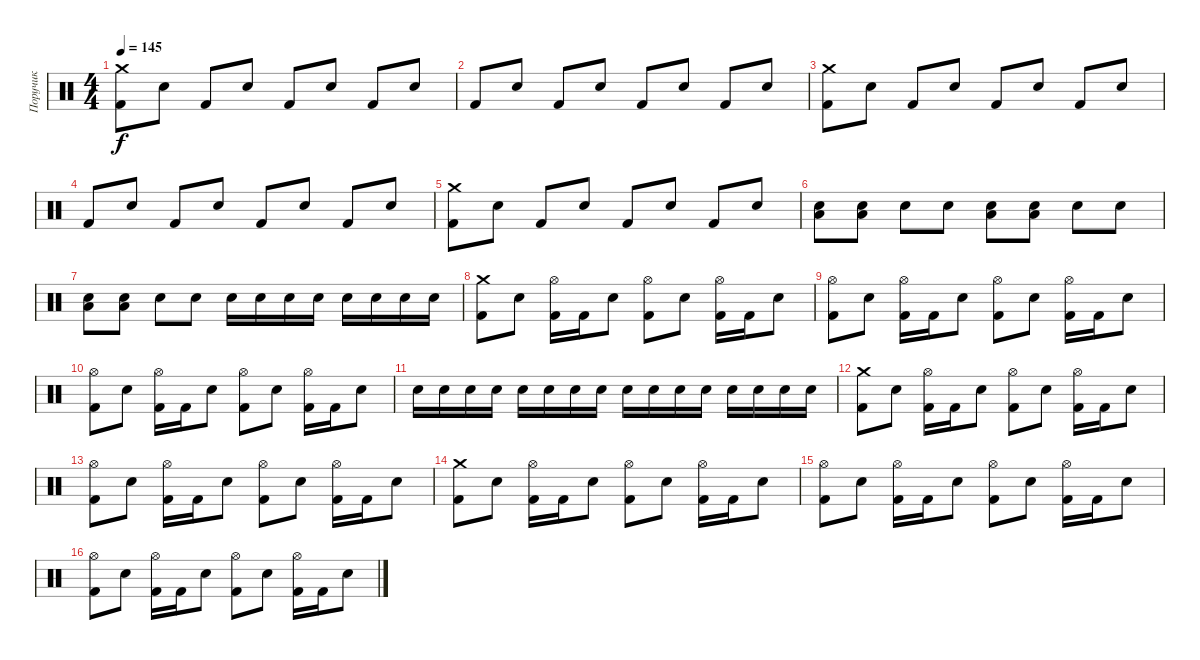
\track ("Поручик" "Поручик") {instrument percussion}
\staff {score}
\articulation defaults
\ts (4 4)
\tempo 145
\clef neutral
\ks c
("Crash medium (hit)" "Kick (hit) 2").8{dy f} "Snare (hit) 2".8 "Kick (hit) 2".8 "Snare (hit) 2".8 "Kick (hit) 2".8 "Snare (hit) 2".8 "Kick (hit) 2".8 "Snare (hit) 2".8 |
"Kick (hit) 2".8 "Snare (hit) 2".8 "Kick (hit) 2".8 "Snare (hit) 2".8 "Kick (hit) 2".8 "Snare (hit) 2".8 "Kick (hit) 2".8 "Snare (hit) 2".8 |
("Crash medium (hit)" "Kick (hit) 2").8 "Snare (hit) 2".8 "Kick (hit) 2".8 "Snare (hit) 2".8 "Kick (hit) 2".8 "Snare (hit) 2".8 "Kick (hit) 2".8 "Snare (hit) 2".8 |
"Kick (hit) 2".8 "Snare (hit) 2".8 "Kick (hit) 2".8 "Snare (hit) 2".8 "Kick (hit) 2".8 "Snare (hit) 2".8 "Kick (hit) 2".8 "Snare (hit) 2".8 |
("Crash medium (hit)" "Kick (hit) 2").8 "Snare (hit) 2".8 "Kick (hit) 2".8 "Snare (hit) 2".8 "Kick (hit) 2".8 "Snare (hit) 2".8 "Kick (hit) 2".8 "Snare (hit) 2".8 |
("Snare (hit) 2" "Low Tom (hit)").8 ("Snare (hit) 2" "Low Tom (hit)").8 "Snare (hit)".8 "Snare (hit)".8 ("Snare (hit) 2" "Low Tom (hit)").8 ("Snare (hit) 2" "Low Tom (hit)").8 "Snare (hit)".8 "Snare (hit)".8 |
("Snare (hit) 2" "Low Tom (hit)").8 ("Snare (hit) 2" "Low Tom (hit)").8 "Snare (hit)".8 "Snare (hit)".8 "Snare (hit) 2".16 "Snare (hit) 2".16 "Snare (hit) 2".16 "Snare (hit) 2".16 "Snare (hit) 2".16 "Snare (hit) 2".16 "Snare (hit) 2".16 "Snare (hit) 2".16 |
("Kick (hit) 2" "Crash medium (hit)").8 "Snare (hit) 2".8 ("Kick (hit) 2" "Hi-Hat (open)").16 "Kick (hit) 2".16 "Snare (hit) 2".8 ("Kick (hit) 2" "Hi-Hat (open)").8 "Snare (hit) 2".8 ("Kick (hit) 2" "Hi-Hat (open)").16 "Kick (hit) 2".16 "Snare (hit) 2".8 |
("Kick (hit) 2" "Hi-Hat (open)").8 "Snare (hit) 2".8 ("Kick (hit) 2" "Hi-Hat (open)").16 "Kick (hit) 2".16 "Snare (hit) 2".8 ("Kick (hit) 2" "Hi-Hat (open)").8 "Snare (hit) 2".8 ("Kick (hit) 2" "Hi-Hat (open)").16 "Kick (hit) 2".16 "Snare (hit) 2".8 |
("Kick (hit) 2" "Hi-Hat (open)").8 "Snare (hit) 2".8 ("Kick (hit) 2" "Hi-Hat (open)").16 "Kick (hit) 2".16 "Snare (hit) 2".8 ("Kick (hit) 2" "Hi-Hat (open)").8 "Snare (hit) 2".8 ("Kick (hit) 2" "Hi-Hat (open)").16 "Kick (hit) 2".16 "Snare (hit) 2".8 |
"Snare (hit) 2".16 "Snare (hit) 2".16 "Snare (hit) 2".16 "Snare (hit) 2".16 "Snare (hit) 2".16 "Snare (hit) 2".16 "Snare (hit) 2".16 "Snare (hit) 2".16 "Snare (hit) 2".16 "Snare (hit) 2".16 "Snare (hit) 2".16 "Snare (hit) 2".16 "Snare (hit) 2".16 "Snare (hit) 2".16 "Snare (hit) 2".16 "Snare (hit) 2".16 |
("Kick (hit) 2" "Crash medium (hit)").8 "Snare (hit) 2".8 ("Kick (hit) 2" "Hi-Hat (open)").16 "Kick (hit) 2".16 "Snare (hit) 2".8 ("Kick (hit) 2" "Hi-Hat (open)").8 "Snare (hit) 2".8 ("Kick (hit) 2" "Hi-Hat (open)").16 "Kick (hit) 2".16 "Snare (hit) 2".8 |
("Kick (hit) 2" "Hi-Hat (open)").8 "Snare (hit) 2".8 ("Kick (hit) 2" "Hi-Hat (open)").16 "Kick (hit) 2".16 "Snare (hit) 2".8 ("Kick (hit) 2" "Hi-Hat (open)").8 "Snare (hit) 2".8 ("Kick (hit) 2" "Hi-Hat (open)").16 "Kick (hit) 2".16 "Snare (hit) 2".8 |
("Kick (hit) 2" "Crash medium (hit)").8 "Snare (hit) 2".8 ("Kick (hit) 2" "Hi-Hat (open)").16 "Kick (hit) 2".16 "Snare (hit) 2".8 ("Kick (hit) 2" "Hi-Hat (open)").8 "Snare (hit) 2".8 ("Kick (hit) 2" "Hi-Hat (open)").16 "Kick (hit) 2".16 "Snare (hit) 2".8 |
("Kick (hit) 2" "Hi-Hat (open)").8 "Snare (hit) 2".8 ("Kick (hit) 2" "Hi-Hat (open)").16 "Kick (hit) 2".16 "Snare (hit) 2".8 ("Kick (hit) 2" "Hi-Hat (open)").8 "Snare (hit) 2".8 ("Kick (hit) 2" "Hi-Hat (open)").16 "Kick (hit) 2".16 "Snare (hit) 2".8 |
("Kick (hit) 2" "Hi-Hat (open)").8 "Snare (hit) 2".8 ("Kick (hit) 2" "Hi-Hat (open)").16 "Kick (hit) 2".16 "Snare (hit) 2".8 ("Kick (hit) 2" "Hi-Hat (open)").8 "Snare (hit) 2".8 ("Kick (hit) 2" "Hi-Hat (open)").16 "Kick (hit) 2".16 "Snare (hit) 2".8
